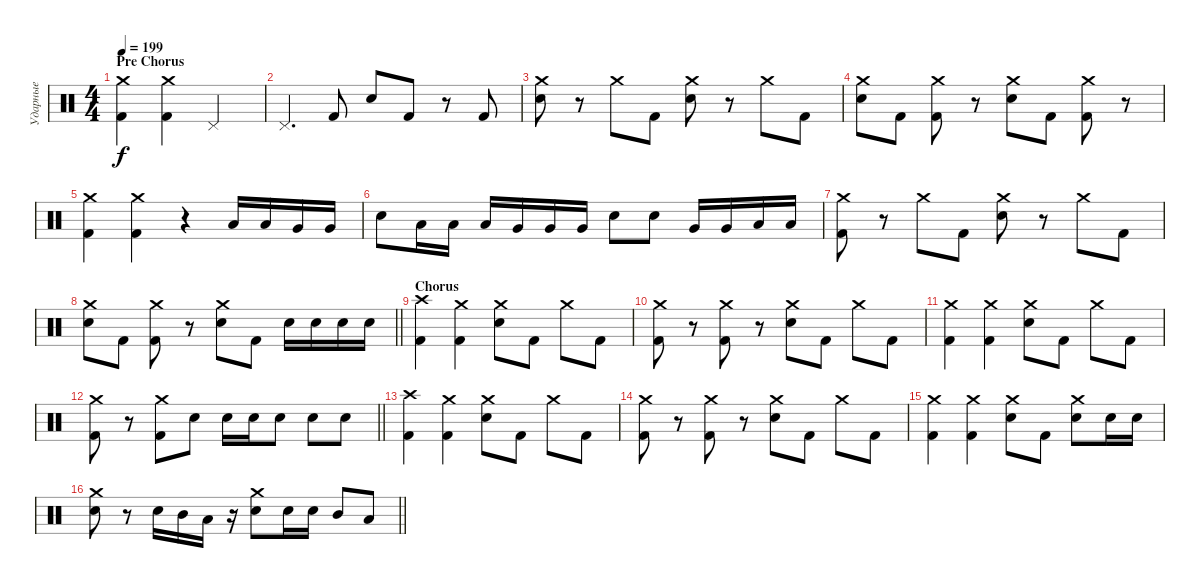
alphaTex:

\track ("Ударные" "Ударные") {instrument percussion}
\staff {score}
\articulation defaults
\ts (4 4)
\section ("" "Pre Chorus")
\tempo 199
\clef neutral
\ks c
("Crash medium (hit)" "Kick (hit) 2").4{dy f} ("Crash medium (hit)" "Kick (hit) 2").4 "Pedal Hi-Hat (hit)".2 |
"Pedal Hi-Hat (hit)".4{d} "Kick (hit) 2".8 "Electric Snare (hit)".8 "Kick (hit) 2".8 r.8 "Kick (hit) 2".8 |
("Crash medium (hit)" "Electric Snare (hit)").8 r.8 "Crash medium (hit)".8 "Kick (hit) 2".8 ("Crash medium (hit)" "Electric Snare (hit)").8 r.8 "Crash medium (hit)".8 "Kick (hit) 2".8 |
("Crash medium (hit)" "Electric Snare (hit)").8 "Kick (hit) 2".8 ("Crash medium (hit)" "Kick (hit) 2").8 r.8 ("Crash medium (hit)" "Electric Snare (hit)").8 "Kick (hit) 2".8 ("Crash medium (hit)" "Kick (hit) 2").8 r.8 |
("Crash medium (hit)" "Kick (hit) 2").4 ("Crash medium (hit)" "Kick (hit) 2").4 r.4 "Low Tom (hit)".16 "Low Tom (hit)".16 "Very Low Tom (hit)".16 "Very Low Tom (hit)".16 |
"Electric Snare (hit)".8 "Low Tom (hit)".16 "Low Tom (hit)".16 "Low Tom (hit)".16 "Very Low Tom (hit)".16 "Very Low Tom (hit)".16 "Very Low Tom (hit)".16 "Electric Snare (hit)".8 "Electric Snare (hit)".8 "Very Low Tom (hit)".16 "Very Low Tom (hit)".16 "Low Floor Tom (hit)".16 "Low Floor Tom (hit)".16 |
("Crash medium (hit)" "Kick (hit) 2").8 r.8 "Crash medium (hit)".8 "Kick (hit) 2".8 ("Crash medium (hit)" "Electric Snare (hit)").8 r.8 "Crash medium (hit)".8 "Kick (hit) 2".8 |
\barLineRight lightlight
("Crash medium (hit)" "Electric Snare (hit)").8 "Kick (hit) 2".8 ("Crash medium (hit)" "Kick (hit) 2").8 r.8 ("Crash medium (hit)" "Electric Snare (hit)").8 "Kick (hit) 2".8 "Electric Snare (hit)".16 "Electric Snare (hit)".16 "Electric Snare (hit)".16 "Electric Snare (hit)".16 |
\section ("" "Chorus")
("Crash high (hit)" "Kick (hit) 2").4 ("Crash medium (hit)" "Kick (hit) 2").4 ("Crash medium (hit)" "Electric Snare (hit)").8 "Kick (hit) 2".8 "Crash medium (hit)".8 "Kick (hit) 2".8 |
("Crash medium (hit)" "Kick (hit) 2").8 r.8 ("Crash medium (hit)" "Kick (hit) 2").8 r.8 ("Crash medium (hit)" "Electric Snare (hit)").8 "Kick (hit) 2".8 "Crash medium (hit)".8 "Kick (hit) 2".8 |
("Crash medium (hit)" "Kick (hit) 2").4 ("Crash medium (hit)" "Kick (hit) 2").4 ("Crash medium (hit)" "Electric Snare (hit)").8 "Kick (hit) 2".8 "Crash medium (hit)".8 "Kick (hit) 2".8 |
\barLineRight lightlight
("Crash medium (hit)" "Kick (hit) 2").8 r.8 ("Crash medium (hit)" "Kick (hit) 2").8 "Electric Snare (hit)".8 "Electric Snare (hit)".16 "Electric Snare (hit)".16 "Electric Snare (hit)".8 "Electric Snare (hit)".8 "Electric Snare (hit)".8 |
("Crash high (hit)" "Kick (hit) 2").4 ("Crash medium (hit)" "Kick (hit) 2").4 ("Crash medium (hit)" "Electric Snare (hit)").8 "Kick (hit) 2".8 "Crash medium (hit)".8 "Kick (hit) 2".8 |
("Crash medium (hit)" "Kick (hit) 2").8 r.8 ("Crash medium (hit)" "Kick (hit) 2").8 r.8 ("Crash medium (hit)" "Electric Snare (hit)").8 "Kick (hit) 2".8 "Crash medium (hit)".8 "Kick (hit) 2".8 |
("Crash medium (hit)" "Kick (hit) 2").4 ("Crash medium (hit)" "Kick (hit) 2").4 ("Crash medium (hit)" "Electric Snare (hit)").8 "Kick (hit) 2".8 ("Crash medium (hit)" "Electric Snare (hit)").8 "Electric Snare (hit)".16 "Electric Snare (hit)".16 |
\barLineRight lightlight
("Crash medium (hit)" "Electric Snare (hit)").8 r.8 "Electric Snare (hit)".16 "Mid Tom (hit)".16 "Low Tom (hit)".16 r.16 ("Crash medium (hit)" "Electric Snare (hit)").8 "Electric Snare (hit)".16 "Electric Snare (hit)".16 "Mid Tom (hit)".8 "Low Tom (hit)".8
